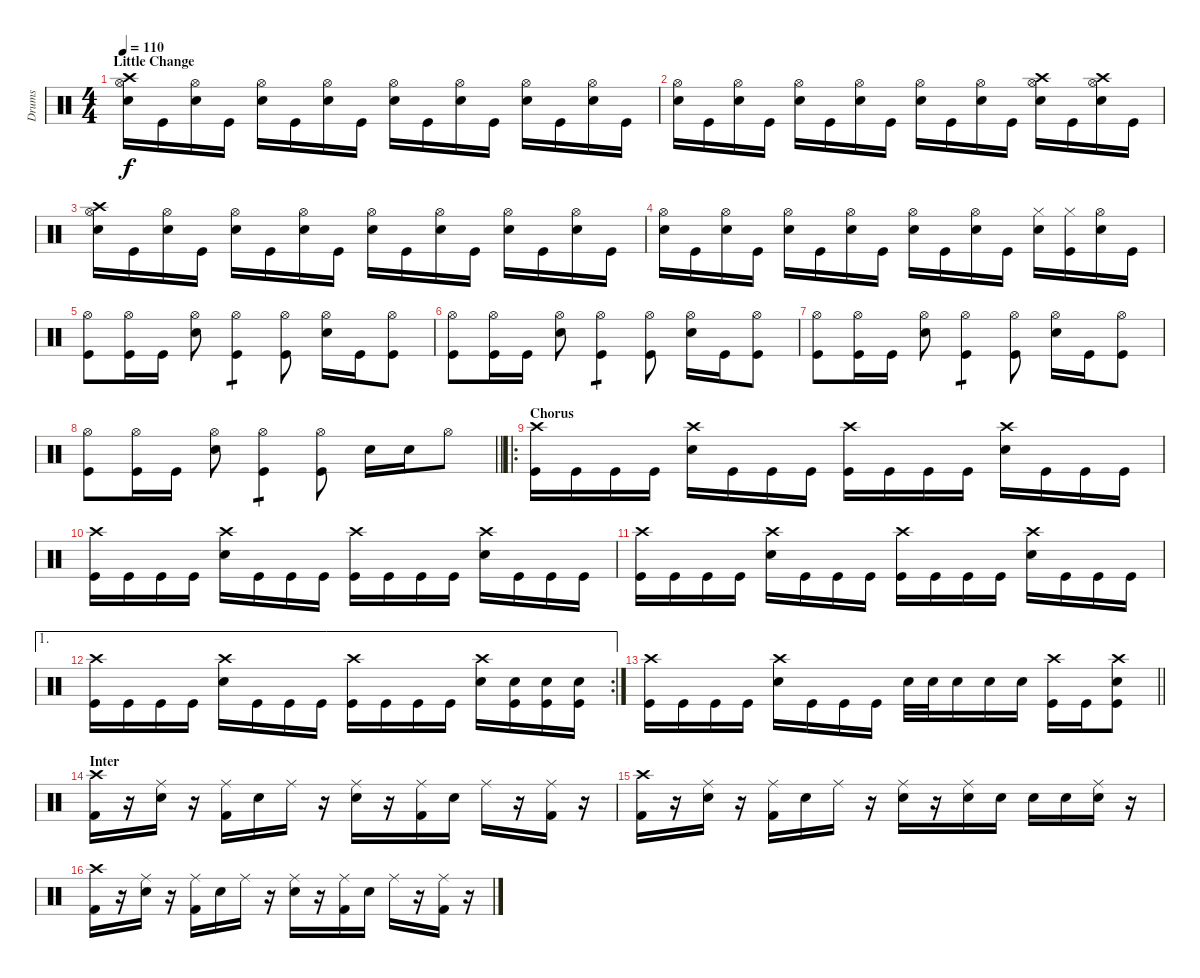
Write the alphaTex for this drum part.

\track ("Drums" "Drums") {instrument percussion}
\staff {score}
\articulation defaults
\ts (4 4)
\section ("" "Little Change")
\tempo 110
\clef neutral
\ks c
("Crash high (hit)" "Hi-Hat (open)" "Snare (hit) 2").16{dy f} "Kick (hit)".16 ("Hi-Hat (open)" "Snare (hit) 2").16 "Kick (hit)".16 ("Hi-Hat (open)" "Snare (hit) 2").16 "Kick (hit)".16 ("Hi-Hat (open)" "Snare (hit) 2").16 "Kick (hit)".16 ("Hi-Hat (open)" "Snare (hit) 2").16 "Kick (hit)".16 ("Hi-Hat (open)" "Snare (hit) 2").16 "Kick (hit)".16 ("Hi-Hat (open)" "Snare (hit) 2").16 "Kick (hit)".16 ("Hi-Hat (open)" "Snare (hit) 2").16 "Kick (hit)".16 |
("Hi-Hat (open)" "Snare (hit) 2").16 "Kick (hit)".16 ("Hi-Hat (open)" "Snare (hit) 2").16 "Kick (hit)".16 ("Hi-Hat (open)" "Snare (hit) 2").16 "Kick (hit)".16 ("Hi-Hat (open)" "Snare (hit) 2").16 "Kick (hit)".16 ("Hi-Hat (open)" "Snare (hit) 2").16 "Kick (hit)".16 ("Hi-Hat (open)" "Snare (hit) 2").16 "Kick (hit)".16 ("Crash high (hit)" "Hi-Hat (open)" "Snare (hit) 2").16 "Kick (hit)".16 ("Crash high (hit)" "Hi-Hat (open)" "Snare (hit) 2").16 "Kick (hit)".16 |
("Crash high (hit)" "Hi-Hat (open)" "Snare (hit) 2").16 "Kick (hit)".16 ("Hi-Hat (open)" "Snare (hit) 2").16 "Kick (hit)".16 ("Hi-Hat (open)" "Snare (hit) 2").16 "Kick (hit)".16 ("Hi-Hat (open)" "Snare (hit) 2").16 "Kick (hit)".16 ("Hi-Hat (open)" "Snare (hit) 2").16 "Kick (hit)".16 ("Hi-Hat (open)" "Snare (hit) 2").16 "Kick (hit)".16 ("Hi-Hat (open)" "Snare (hit) 2").16 "Kick (hit)".16 ("Hi-Hat (open)" "Snare (hit) 2").16 "Kick (hit)".16 |
("Hi-Hat (open)" "Snare (hit) 2").16 "Kick (hit)".16 ("Hi-Hat (open)" "Snare (hit) 2").16 "Kick (hit)".16 ("Hi-Hat (open)" "Snare (hit) 2").16 "Kick (hit)".16 ("Hi-Hat (open)" "Snare (hit) 2").16 "Kick (hit)".16 ("Hi-Hat (open)" "Snare (hit) 2").16 "Kick (hit)".16 ("Hi-Hat (open)" "Snare (hit) 2").16 "Kick (hit)".16 ("Hi-Hat (closed)" "Snare (hit) 2").16 ("Hi-Hat (closed)" "Kick (hit)").16 ("Hi-Hat (open)" "Snare (hit) 2").16 "Kick (hit)".16 |
("Hi-Hat (open)" "Kick (hit)").8 ("Hi-Hat (open)" "Kick (hit)").16 "Kick (hit)".16 ("Hi-Hat (open)" "Snare (hit) 2").8 ("Hi-Hat (open)" "Kick (hit)").4{tp 1} ("Hi-Hat (open)" "Kick (hit)").8 ("Hi-Hat (open)" "Snare (hit) 2").16 "Kick (hit)".16 ("Hi-Hat (open)" "Kick (hit)").8 |
("Hi-Hat (open)" "Kick (hit)").8 ("Hi-Hat (open)" "Kick (hit)").16 "Kick (hit)".16 ("Hi-Hat (open)" "Snare (hit) 2").8 ("Hi-Hat (open)" "Kick (hit)").4{tp 1} ("Hi-Hat (open)" "Kick (hit)").8 ("Hi-Hat (open)" "Snare (hit) 2").16 "Kick (hit)".16 ("Hi-Hat (open)" "Kick (hit)").8 |
("Hi-Hat (open)" "Kick (hit)").8 ("Hi-Hat (open)" "Kick (hit)").16 "Kick (hit)".16 ("Hi-Hat (open)" "Snare (hit) 2").8 ("Hi-Hat (open)" "Kick (hit)").4{tp 1} ("Hi-Hat (open)" "Kick (hit)").8 ("Hi-Hat (open)" "Snare (hit) 2").16 "Kick (hit)".16 ("Hi-Hat (open)" "Kick (hit)").8 |
\barLineRight lightlight
("Hi-Hat (open)" "Kick (hit)").8 ("Hi-Hat (open)" "Kick (hit)").16 "Kick (hit)".16 ("Hi-Hat (open)" "Snare (hit) 2").8 ("Hi-Hat (open)" "Kick (hit)").4{tp 1} ("Hi-Hat (open)" "Kick (hit)").8 "Snare (hit) 2".16 "Snare (hit) 2".16 "Hi-Hat (open)".8 |
\ro
\section ("" "Chorus")
("Crash high (hit)" "Kick (hit)").16 "Kick (hit)".16 "Kick (hit)".16 "Kick (hit)".16 ("Crash high (hit)" "Snare (hit) 2").16 "Kick (hit)".16 "Kick (hit)".16 "Kick (hit)".16 ("Crash high (hit)" "Kick (hit)").16 "Kick (hit)".16 "Kick (hit)".16 "Kick (hit)".16 ("Crash high (hit)" "Snare (hit) 2").16 "Kick (hit)".16 "Kick (hit)".16 "Kick (hit)".16 |
("Crash high (hit)" "Kick (hit)").16 "Kick (hit)".16 "Kick (hit)".16 "Kick (hit)".16 ("Crash high (hit)" "Snare (hit) 2").16 "Kick (hit)".16 "Kick (hit)".16 "Kick (hit)".16 ("Crash high (hit)" "Kick (hit)").16 "Kick (hit)".16 "Kick (hit)".16 "Kick (hit)".16 ("Crash high (hit)" "Snare (hit) 2").16 "Kick (hit)".16 "Kick (hit)".16 "Kick (hit)".16 |
("Crash high (hit)" "Kick (hit)").16 "Kick (hit)".16 "Kick (hit)".16 "Kick (hit)".16 ("Crash high (hit)" "Snare (hit) 2").16 "Kick (hit)".16 "Kick (hit)".16 "Kick (hit)".16 ("Crash high (hit)" "Kick (hit)").16 "Kick (hit)".16 "Kick (hit)".16 "Kick (hit)".16 ("Crash high (hit)" "Snare (hit) 2").16 "Kick (hit)".16 "Kick (hit)".16 "Kick (hit)".16 |
\ae 1
\rc 2
("Crash high (hit)" "Kick (hit)").16 "Kick (hit)".16 "Kick (hit)".16 "Kick (hit)".16 ("Crash high (hit)" "Snare (hit) 2").16 "Kick (hit)".16 "Kick (hit)".16 "Kick (hit)".16 ("Crash high (hit)" "Kick (hit)").16 "Kick (hit)".16 "Kick (hit)".16 "Kick (hit)".16 ("Crash high (hit)" "Snare (hit) 2").16 ("Snare (hit) 2" "Kick (hit)").16 ("Snare (hit) 2" "Kick (hit)").16 ("Snare (hit) 2" "Kick (hit)").16 |
\barLineRight lightlight
("Crash high (hit)" "Kick (hit)").16 "Kick (hit)".16 "Kick (hit)".16 "Kick (hit)".16 ("Crash high (hit)" "Snare (hit) 2").16 "Kick (hit)".16 "Kick (hit)".16 "Kick (hit)".16 "Snare (hit) 2".32 "Snare (hit) 2".32 "Snare (hit) 2".16 "Snare (hit) 2".16 "Snare (hit) 2".16 ("Crash high (hit)" "Kick (hit)").16 "Kick (hit)".16 ("Crash high (hit)" "Snare (hit) 2" "Kick (hit)").8 |
\section ("" "Inter")
("Crash high (hit)" "Kick (hit) 2").16 r.16 ("Ride (middle)" "Electric Snare (hit)").16 r.16 ("Ride (middle)" "Kick (hit) 2").16 "Electric Snare (hit)".16 "Ride (middle)".16 r.16 ("Ride (middle)" "Electric Snare (hit)").16 r.16 ("Ride (middle)" "Kick (hit) 2").16 "Electric Snare (hit)".16 "Ride (middle)".16 r.16 ("Ride (middle)" "Kick (hit) 2").16 r.16 |
("Crash high (hit)" "Kick (hit) 2").16 r.16 ("Ride (middle)" "Electric Snare (hit)").16 r.16 ("Ride (middle)" "Kick (hit) 2").16 "Electric Snare (hit)".16 "Ride (middle)".16 r.16 ("Ride (middle)" "Electric Snare (hit)").16 r.16 ("Ride (middle)" "Electric Snare (hit)").16 "Electric Snare (hit)".16 "Electric Snare (hit)".16 "Electric Snare (hit)".16 ("Ride (middle)" "Electric Snare (hit)").16 r.16 |
("Crash high (hit)" "Kick (hit) 2").16 r.16 ("Ride (middle)" "Electric Snare (hit)").16 r.16 ("Ride (middle)" "Kick (hit) 2").16 "Electric Snare (hit)".16 "Ride (middle)".16 r.16 ("Ride (middle)" "Electric Snare (hit)").16 r.16 ("Ride (middle)" "Kick (hit) 2").16 "Electric Snare (hit)".16 "Ride (middle)".16 r.16 ("Ride (middle)" "Kick (hit) 2").16 r.16
